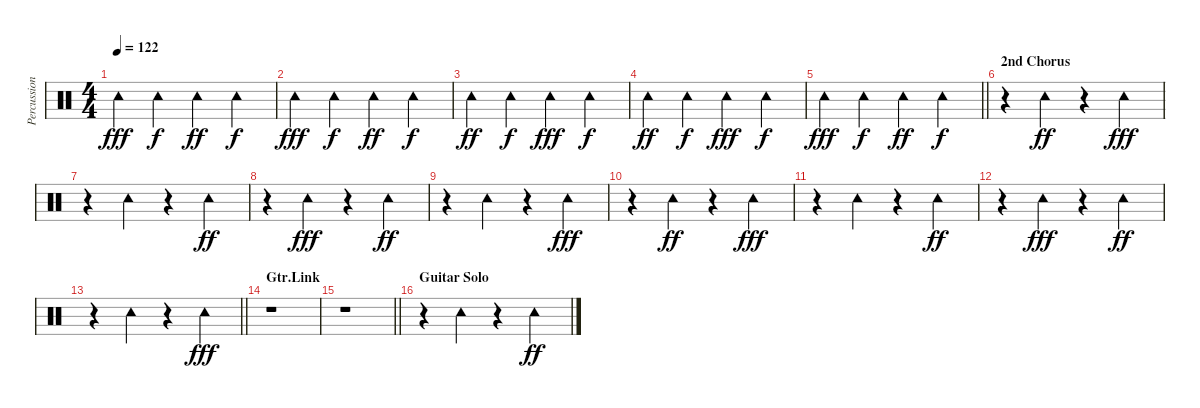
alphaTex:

\track ("Percussion" "Percussion") {instrument percussion}
\staff {score}
\articulation defaults
\ts (4 4)
\tempo 122
\clef neutral
\ks c "Tambourine (hit)".4{dy fff} "Tambourine (hit)".4{dy f} "Tambourine (hit)".4{dy ff} "Tambourine (hit)".4{dy f}
|
"Tambourine (hit)".4{dy fff} "Tambourine (hit)".4{dy f} "Tambourine (hit)".4{dy ff} "Tambourine (hit)".4{dy f} |
"Tambourine (hit)".4{dy ff} "Tambourine (hit)".4{dy f} "Tambourine (hit)".4{dy fff} "Tambourine (hit)".4{dy f} |
"Tambourine (hit)".4{dy ff} "Tambourine (hit)".4{dy f} "Tambourine (hit)".4{dy fff} "Tambourine (hit)".4{dy f} |
\barLineRight lightlight "Tambourine (hit)".4{dy fff} "Tambourine (hit)".4{dy f} "Tambourine (hit)".4{dy ff} "Tambourine (hit)".4{dy f}
|
\section ("" "2nd Chorus")
r.4 "Tambourine (hit)".4{dy ff} r.4 "Tambourine (hit)".4{dy fff} |
r.4 "Tambourine (hit)".4 r.4 "Tambourine (hit)".4{dy ff} |
r.4 "Tambourine (hit)".4{dy fff} r.4 "Tambourine (hit)".4{dy ff} |
r.4 "Tambourine (hit)".4 r.4 "Tambourine (hit)".4{dy fff} |
r.4 "Tambourine (hit)".4{dy ff} r.4 "Tambourine (hit)".4{dy fff} |
r.4 "Tambourine (hit)".4 r.4 "Tambourine (hit)".4{dy ff} |
r.4 "Tambourine (hit)".4{dy fff} r.4 "Tambourine (hit)".4{dy ff} |
\barLineRight lightlight
r.4 "Tambourine (hit)".4 r.4 "Tambourine (hit)".4{dy fff} |
\section ("" "Gtr.Link")
r.1 |
\barLineRight lightlight
r.1 |
\section ("" "Guitar Solo")
r.4 "Tambourine (hit)".4 r.4 "Tambourine (hit)".4{dy ff}
